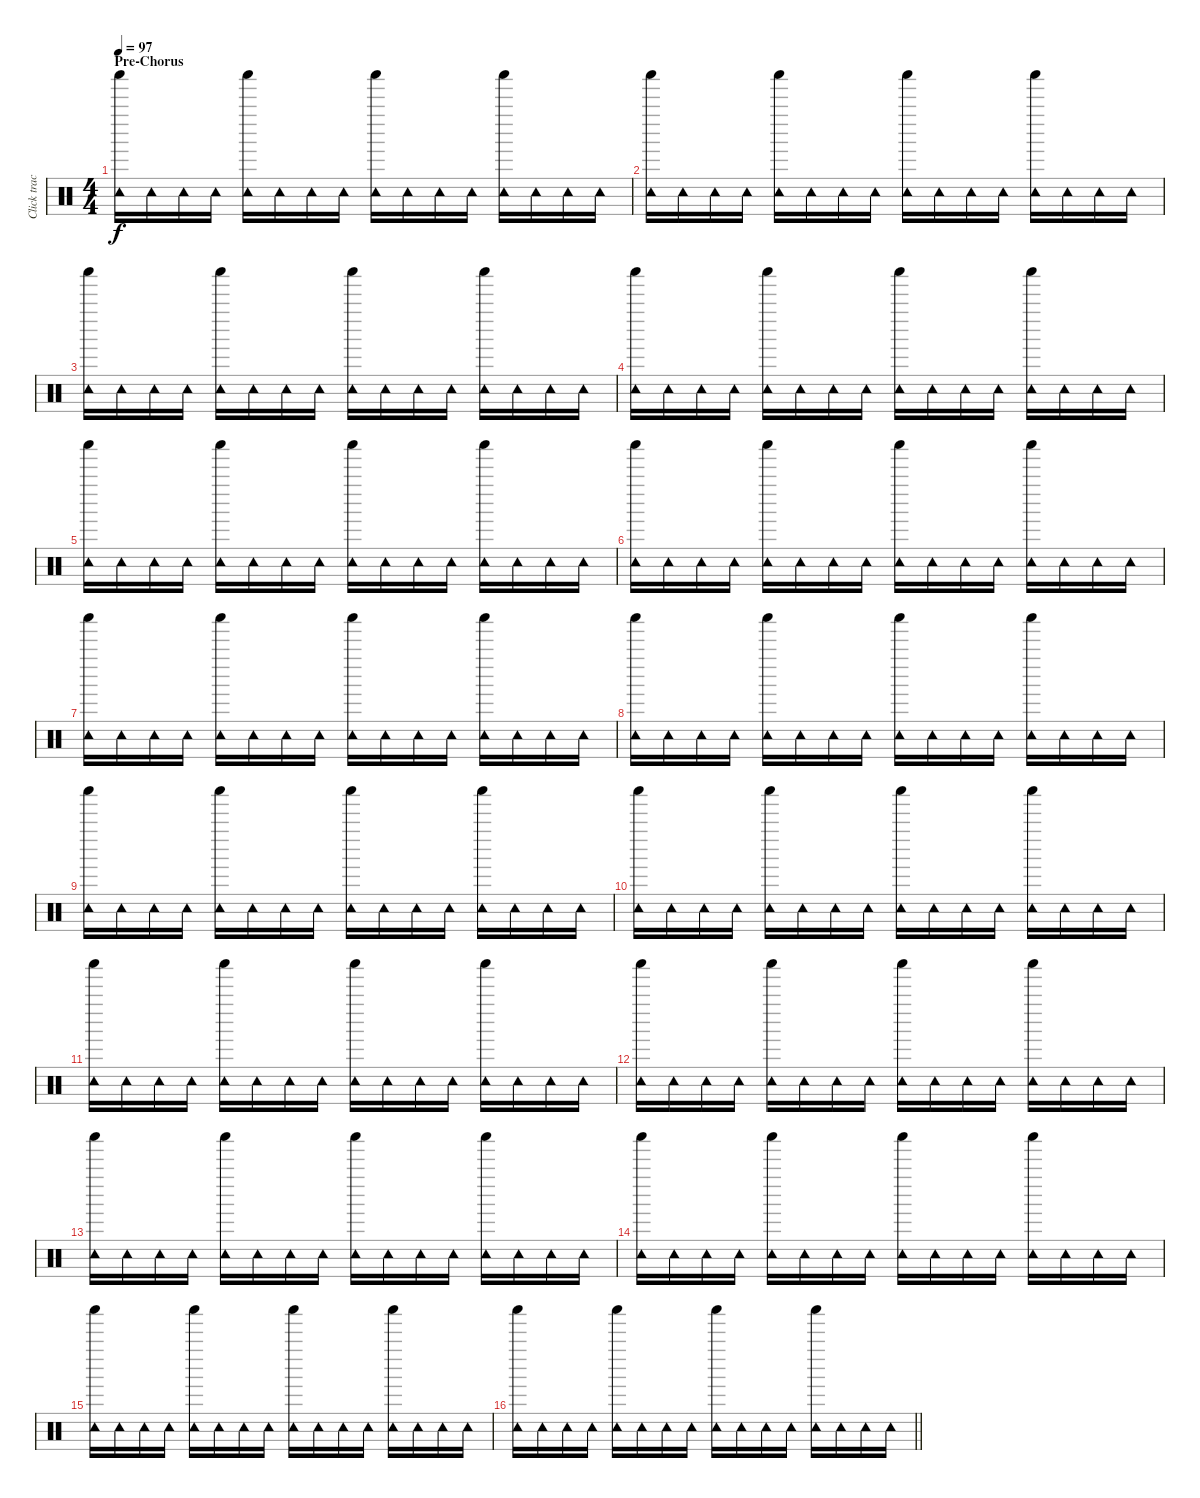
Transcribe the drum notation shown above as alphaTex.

\track ("Click track" "Click trac") {instrument percussion}
\staff {score}
\articulation defaults
\ts (4 4)
\section ("" "Pre-Chorus")
\tempo 97
\clef neutral
\ks c
("Shaker (hit)" "Tambourine (hit)").16{dy f} "Tambourine (hit)".16 "Tambourine (hit)".16 "Tambourine (hit)".16 ("Shaker (hit)" "Tambourine (hit)").16 "Tambourine (hit)".16 "Tambourine (hit)".16 "Tambourine (hit)".16 ("Shaker (hit)" "Tambourine (hit)").16 "Tambourine (hit)".16 "Tambourine (hit)".16 "Tambourine (hit)".16 ("Shaker (hit)" "Tambourine (hit)").16 "Tambourine (hit)".16 "Tambourine (hit)".16 "Tambourine (hit)".16 |
("Shaker (hit)" "Tambourine (hit)").16 "Tambourine (hit)".16 "Tambourine (hit)".16 "Tambourine (hit)".16 ("Shaker (hit)" "Tambourine (hit)").16 "Tambourine (hit)".16 "Tambourine (hit)".16 "Tambourine (hit)".16 ("Shaker (hit)" "Tambourine (hit)").16 "Tambourine (hit)".16 "Tambourine (hit)".16 "Tambourine (hit)".16 ("Shaker (hit)" "Tambourine (hit)").16 "Tambourine (hit)".16 "Tambourine (hit)".16 "Tambourine (hit)".16 |
("Shaker (hit)" "Tambourine (hit)").16 "Tambourine (hit)".16 "Tambourine (hit)".16 "Tambourine (hit)".16 ("Shaker (hit)" "Tambourine (hit)").16 "Tambourine (hit)".16 "Tambourine (hit)".16 "Tambourine (hit)".16 ("Shaker (hit)" "Tambourine (hit)").16 "Tambourine (hit)".16 "Tambourine (hit)".16 "Tambourine (hit)".16 ("Shaker (hit)" "Tambourine (hit)").16 "Tambourine (hit)".16 "Tambourine (hit)".16 "Tambourine (hit)".16 |
("Shaker (hit)" "Tambourine (hit)").16 "Tambourine (hit)".16 "Tambourine (hit)".16 "Tambourine (hit)".16 ("Shaker (hit)" "Tambourine (hit)").16 "Tambourine (hit)".16 "Tambourine (hit)".16 "Tambourine (hit)".16 ("Shaker (hit)" "Tambourine (hit)").16 "Tambourine (hit)".16 "Tambourine (hit)".16 "Tambourine (hit)".16 ("Shaker (hit)" "Tambourine (hit)").16 "Tambourine (hit)".16 "Tambourine (hit)".16 "Tambourine (hit)".16 |
("Shaker (hit)" "Tambourine (hit)").16 "Tambourine (hit)".16 "Tambourine (hit)".16 "Tambourine (hit)".16 ("Shaker (hit)" "Tambourine (hit)").16 "Tambourine (hit)".16 "Tambourine (hit)".16 "Tambourine (hit)".16 ("Shaker (hit)" "Tambourine (hit)").16 "Tambourine (hit)".16 "Tambourine (hit)".16 "Tambourine (hit)".16 ("Shaker (hit)" "Tambourine (hit)").16 "Tambourine (hit)".16 "Tambourine (hit)".16 "Tambourine (hit)".16 |
("Shaker (hit)" "Tambourine (hit)").16 "Tambourine (hit)".16 "Tambourine (hit)".16 "Tambourine (hit)".16 ("Shaker (hit)" "Tambourine (hit)").16 "Tambourine (hit)".16 "Tambourine (hit)".16 "Tambourine (hit)".16 ("Shaker (hit)" "Tambourine (hit)").16 "Tambourine (hit)".16 "Tambourine (hit)".16 "Tambourine (hit)".16 ("Shaker (hit)" "Tambourine (hit)").16 "Tambourine (hit)".16 "Tambourine (hit)".16 "Tambourine (hit)".16 |
("Shaker (hit)" "Tambourine (hit)").16 "Tambourine (hit)".16 "Tambourine (hit)".16 "Tambourine (hit)".16 ("Shaker (hit)" "Tambourine (hit)").16 "Tambourine (hit)".16 "Tambourine (hit)".16 "Tambourine (hit)".16 ("Shaker (hit)" "Tambourine (hit)").16 "Tambourine (hit)".16 "Tambourine (hit)".16 "Tambourine (hit)".16 ("Shaker (hit)" "Tambourine (hit)").16 "Tambourine (hit)".16 "Tambourine (hit)".16 "Tambourine (hit)".16 |
("Shaker (hit)" "Tambourine (hit)").16 "Tambourine (hit)".16 "Tambourine (hit)".16 "Tambourine (hit)".16 ("Shaker (hit)" "Tambourine (hit)").16 "Tambourine (hit)".16 "Tambourine (hit)".16 "Tambourine (hit)".16 ("Shaker (hit)" "Tambourine (hit)").16 "Tambourine (hit)".16 "Tambourine (hit)".16 "Tambourine (hit)".16 ("Shaker (hit)" "Tambourine (hit)").16 "Tambourine (hit)".16 "Tambourine (hit)".16 "Tambourine (hit)".16 |
("Shaker (hit)" "Tambourine (hit)").16 "Tambourine (hit)".16 "Tambourine (hit)".16 "Tambourine (hit)".16 ("Shaker (hit)" "Tambourine (hit)").16 "Tambourine (hit)".16 "Tambourine (hit)".16 "Tambourine (hit)".16 ("Shaker (hit)" "Tambourine (hit)").16 "Tambourine (hit)".16 "Tambourine (hit)".16 "Tambourine (hit)".16 ("Shaker (hit)" "Tambourine (hit)").16 "Tambourine (hit)".16 "Tambourine (hit)".16 "Tambourine (hit)".16 |
("Shaker (hit)" "Tambourine (hit)").16 "Tambourine (hit)".16 "Tambourine (hit)".16 "Tambourine (hit)".16 ("Shaker (hit)" "Tambourine (hit)").16 "Tambourine (hit)".16 "Tambourine (hit)".16 "Tambourine (hit)".16 ("Shaker (hit)" "Tambourine (hit)").16 "Tambourine (hit)".16 "Tambourine (hit)".16 "Tambourine (hit)".16 ("Shaker (hit)" "Tambourine (hit)").16 "Tambourine (hit)".16 "Tambourine (hit)".16 "Tambourine (hit)".16 |
("Shaker (hit)" "Tambourine (hit)").16 "Tambourine (hit)".16 "Tambourine (hit)".16 "Tambourine (hit)".16 ("Shaker (hit)" "Tambourine (hit)").16 "Tambourine (hit)".16 "Tambourine (hit)".16 "Tambourine (hit)".16 ("Shaker (hit)" "Tambourine (hit)").16 "Tambourine (hit)".16 "Tambourine (hit)".16 "Tambourine (hit)".16 ("Shaker (hit)" "Tambourine (hit)").16 "Tambourine (hit)".16 "Tambourine (hit)".16 "Tambourine (hit)".16 |
("Shaker (hit)" "Tambourine (hit)").16 "Tambourine (hit)".16 "Tambourine (hit)".16 "Tambourine (hit)".16 ("Shaker (hit)" "Tambourine (hit)").16 "Tambourine (hit)".16 "Tambourine (hit)".16 "Tambourine (hit)".16 ("Shaker (hit)" "Tambourine (hit)").16 "Tambourine (hit)".16 "Tambourine (hit)".16 "Tambourine (hit)".16 ("Shaker (hit)" "Tambourine (hit)").16 "Tambourine (hit)".16 "Tambourine (hit)".16 "Tambourine (hit)".16 |
("Shaker (hit)" "Tambourine (hit)").16 "Tambourine (hit)".16 "Tambourine (hit)".16 "Tambourine (hit)".16 ("Shaker (hit)" "Tambourine (hit)").16 "Tambourine (hit)".16 "Tambourine (hit)".16 "Tambourine (hit)".16 ("Shaker (hit)" "Tambourine (hit)").16 "Tambourine (hit)".16 "Tambourine (hit)".16 "Tambourine (hit)".16 ("Shaker (hit)" "Tambourine (hit)").16 "Tambourine (hit)".16 "Tambourine (hit)".16 "Tambourine (hit)".16 |
("Shaker (hit)" "Tambourine (hit)").16 "Tambourine (hit)".16 "Tambourine (hit)".16 "Tambourine (hit)".16 ("Shaker (hit)" "Tambourine (hit)").16 "Tambourine (hit)".16 "Tambourine (hit)".16 "Tambourine (hit)".16 ("Shaker (hit)" "Tambourine (hit)").16 "Tambourine (hit)".16 "Tambourine (hit)".16 "Tambourine (hit)".16 ("Shaker (hit)" "Tambourine (hit)").16 "Tambourine (hit)".16 "Tambourine (hit)".16 "Tambourine (hit)".16 |
("Shaker (hit)" "Tambourine (hit)").16 "Tambourine (hit)".16 "Tambourine (hit)".16 "Tambourine (hit)".16 ("Shaker (hit)" "Tambourine (hit)").16 "Tambourine (hit)".16 "Tambourine (hit)".16 "Tambourine (hit)".16 ("Shaker (hit)" "Tambourine (hit)").16 "Tambourine (hit)".16 "Tambourine (hit)".16 "Tambourine (hit)".16 ("Shaker (hit)" "Tambourine (hit)").16 "Tambourine (hit)".16 "Tambourine (hit)".16 "Tambourine (hit)".16 |
\barLineRight lightlight
("Shaker (hit)" "Tambourine (hit)").16 "Tambourine (hit)".16 "Tambourine (hit)".16 "Tambourine (hit)".16 ("Shaker (hit)" "Tambourine (hit)").16 "Tambourine (hit)".16 "Tambourine (hit)".16 "Tambourine (hit)".16 ("Shaker (hit)" "Tambourine (hit)").16 "Tambourine (hit)".16 "Tambourine (hit)".16 "Tambourine (hit)".16 ("Shaker (hit)" "Tambourine (hit)").16 "Tambourine (hit)".16 "Tambourine (hit)".16 "Tambourine (hit)".16
